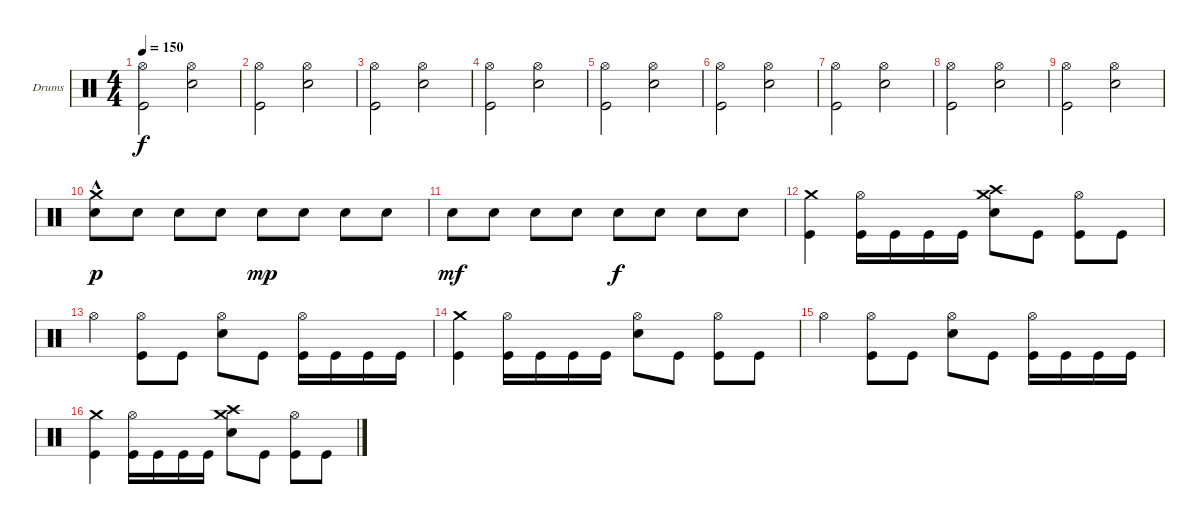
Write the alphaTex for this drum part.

\defaultSystemsLayout 4
\bracketExtendMode groupsimilarinstruments
\firstSystemTrackNameOrientation horizontal
\otherSystemsTrackNameOrientation horizontal
\track ("Drumkit" "Drums") {instrument percussion}
\staff {score}
\articulation defaults
\ts (4 4)
\tempo 150
\clef neutral
\ks c
("Kick (hit)" "Hi-Hat (open)").2{dy f} ("Snare (hit) 2" "Hi-Hat (open)").2 |
("Kick (hit)" "Hi-Hat (open)").2 ("Snare (hit) 2" "Hi-Hat (open)").2 |
("Kick (hit)" "Hi-Hat (open)").2 ("Snare (hit) 2" "Hi-Hat (open)").2 |
("Kick (hit)" "Hi-Hat (open)").2 ("Snare (hit) 2" "Hi-Hat (open)").2 |
("Kick (hit)" "Hi-Hat (open)").2 ("Snare (hit) 2" "Hi-Hat (open)").2 |
("Kick (hit)" "Hi-Hat (open)").2 ("Snare (hit) 2" "Hi-Hat (open)").2 |
("Kick (hit)" "Hi-Hat (open)").2 ("Snare (hit) 2" "Hi-Hat (open)").2 |
("Kick (hit)" "Hi-Hat (open)").2 ("Snare (hit) 2" "Hi-Hat (open)").2 |
("Kick (hit)" "Hi-Hat (open)").2 ("Snare (hit) 2" "Hi-Hat (open)").2 |
("Snare (hit) 2" "Crash medium (hit)"{hac}).8{dy p} "Snare (hit) 2".8 "Snare (hit) 2".8 "Snare (hit) 2".8 "Snare (hit) 2".8{dy mp} "Snare (hit) 2".8 "Snare (hit) 2".8 "Snare (hit) 2".8 |
"Snare (hit) 2".8{dy mf} "Snare (hit) 2".8 "Snare (hit) 2".8 "Snare (hit) 2".8 "Snare (hit) 2".8{dy f} "Snare (hit) 2".8 "Snare (hit) 2".8 "Snare (hit) 2".8 |
("Crash medium (hit)" "Kick (hit)").4 ("Kick (hit)" "Hi-Hat (open)").16 "Kick (hit)".16 "Kick (hit)".16 "Kick (hit)".16 ("Crash medium (hit)" "Crash high (hit)" "Snare (hit) 2").8 "Kick (hit)".8 ("Kick (hit)" "Hi-Hat (open)").8 "Kick (hit)".8 |
"Hi-Hat (open)".4 ("Hi-Hat (open)" "Kick (hit)").8 "Kick (hit)".8 ("Snare (hit) 2" "Hi-Hat (open)").8 "Kick (hit)".8 ("Kick (hit)" "Hi-Hat (open)").16 "Kick (hit)".16 "Kick (hit)".16 "Kick (hit)".16 |
("Crash medium (hit)" "Kick (hit)").4 ("Kick (hit)" "Hi-Hat (open)").16 "Kick (hit)".16 "Kick (hit)".16 "Kick (hit)".16 ("Snare (hit) 2" "Hi-Hat (open)").8 "Kick (hit)".8 ("Kick (hit)" "Hi-Hat (open)").8 "Kick (hit)".8 |
"Hi-Hat (open)".4 ("Hi-Hat (open)" "Kick (hit)").8 "Kick (hit)".8 ("Snare (hit) 2" "Hi-Hat (open)").8 "Kick (hit)".8 ("Kick (hit)" "Hi-Hat (open)").16 "Kick (hit)".16 "Kick (hit)".16 "Kick (hit)".16 |
("Crash medium (hit)" "Kick (hit)").4 ("Kick (hit)" "Hi-Hat (open)").16 "Kick (hit)".16 "Kick (hit)".16 "Kick (hit)".16 ("Crash medium (hit)" "Crash high (hit)" "Snare (hit) 2").8 "Kick (hit)".8 ("Kick (hit)" "Hi-Hat (open)").8 "Kick (hit)".8
